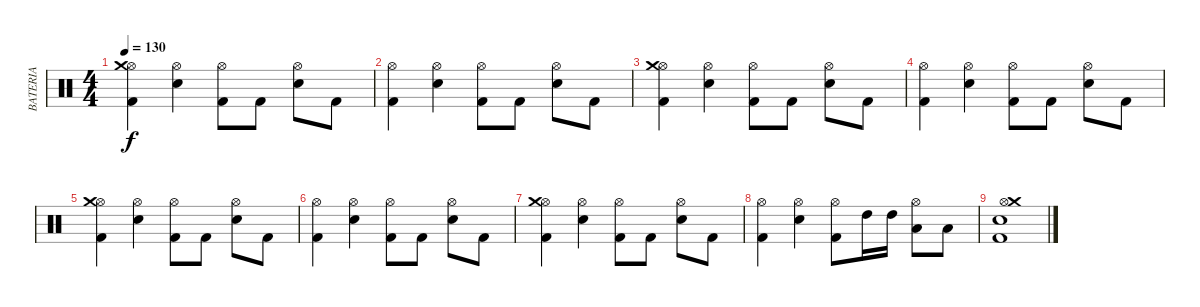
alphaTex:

\track ("BATERIA" "BATERIA") {instrument percussion}
\staff {score}
\articulation defaults
\ts (4 4)
\tempo 130
\clef neutral
\ks c
("Kick (hit) 2" "Hi-Hat (open)" "Crash medium (hit)").4{dy f} ("Electric Snare (hit)" "Hi-Hat (open)").4 ("Kick (hit) 2" "Hi-Hat (open)").8 "Kick (hit) 2".8 ("Electric Snare (hit)" "Hi-Hat (open)").8 "Kick (hit) 2".8 |
("Kick (hit) 2" "Hi-Hat (open)").4 ("Electric Snare (hit)" "Hi-Hat (open)").4 ("Kick (hit) 2" "Hi-Hat (open)").8 "Kick (hit) 2".8 ("Electric Snare (hit)" "Hi-Hat (open)").8 "Kick (hit) 2".8 |
("Kick (hit) 2" "Hi-Hat (open)" "Crash medium (hit)").4 ("Electric Snare (hit)" "Hi-Hat (open)").4 ("Kick (hit) 2" "Hi-Hat (open)").8 "Kick (hit) 2".8 ("Electric Snare (hit)" "Hi-Hat (open)").8 "Kick (hit) 2".8 |
("Kick (hit) 2" "Hi-Hat (open)").4 ("Electric Snare (hit)" "Hi-Hat (open)").4 ("Kick (hit) 2" "Hi-Hat (open)").8 "Kick (hit) 2".8 ("Electric Snare (hit)" "Hi-Hat (open)").8 "Kick (hit) 2".8 |
("Kick (hit) 2" "Hi-Hat (open)" "Crash medium (hit)").4 ("Electric Snare (hit)" "Hi-Hat (open)").4 ("Kick (hit) 2" "Hi-Hat (open)").8 "Kick (hit) 2".8 ("Electric Snare (hit)" "Hi-Hat (open)").8 "Kick (hit) 2".8 |
("Kick (hit) 2" "Hi-Hat (open)").4 ("Electric Snare (hit)" "Hi-Hat (open)").4 ("Kick (hit) 2" "Hi-Hat (open)").8 "Kick (hit) 2".8 ("Electric Snare (hit)" "Hi-Hat (open)").8 "Kick (hit) 2".8 |
("Kick (hit) 2" "Hi-Hat (open)" "Crash medium (hit)").4 ("Electric Snare (hit)" "Hi-Hat (open)").4 ("Kick (hit) 2" "Hi-Hat (open)").8 "Kick (hit) 2".8 ("Electric Snare (hit)" "Hi-Hat (open)").8 "Kick (hit) 2".8 |
("Kick (hit) 2" "Hi-Hat (open)").4 ("Electric Snare (hit)" "Hi-Hat (open)").4 ("Kick (hit) 2" "Hi-Hat (open)").8 "High Tom (hit)".16 "High Tom (hit)".16 ("Hi-Hat (open)" "Low Tom (hit)").8 "Low Tom (hit)".8 |
("Kick (hit) 2" "Electric Snare (hit)" "Hi-Hat (open)" "Crash medium (hit)").1
